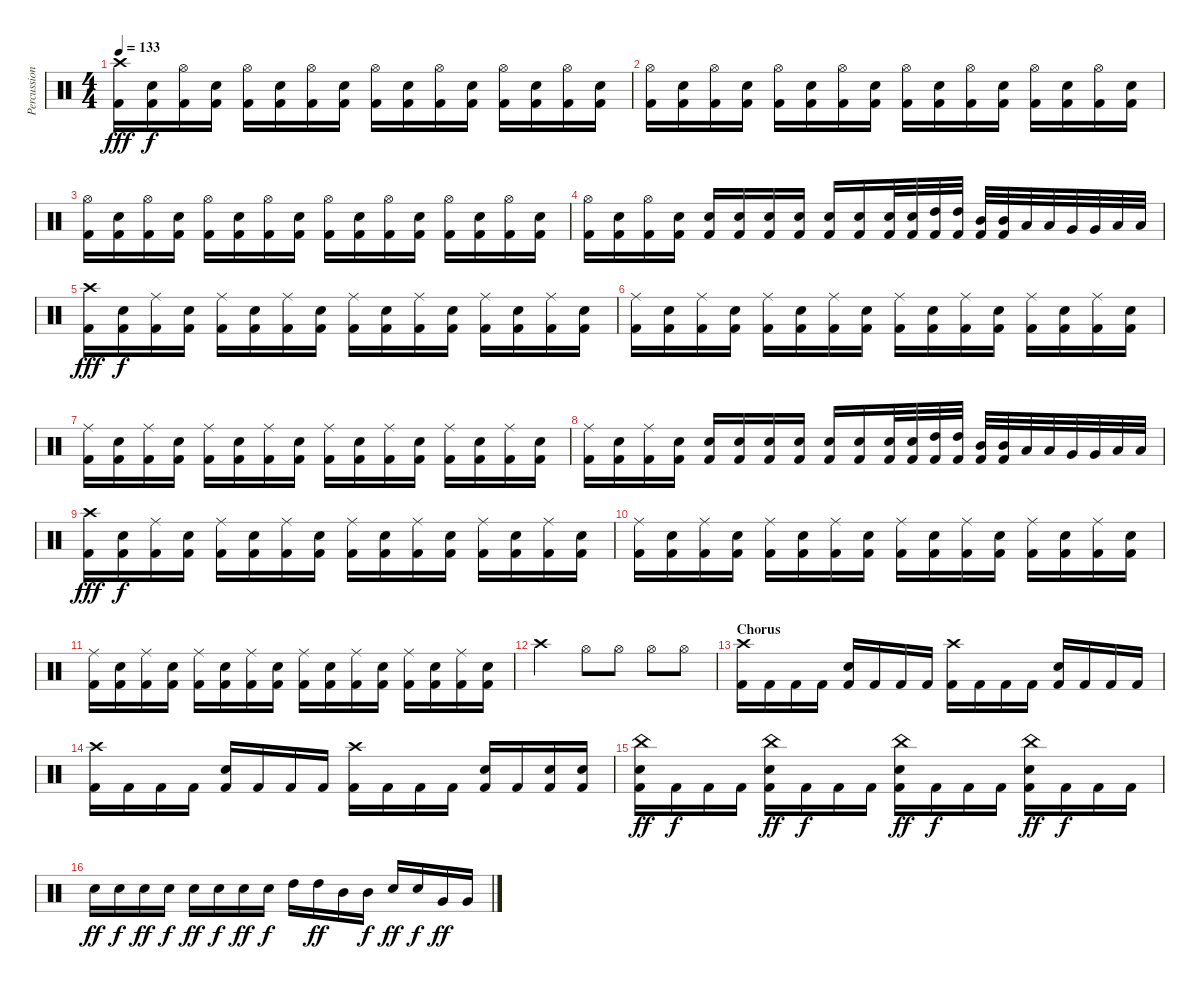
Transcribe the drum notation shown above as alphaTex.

\track ("Percussion" "Percussion") {instrument percussion}
\staff {score}
\articulation defaults
\ts (4 4)
\tempo 133
\clef neutral
\ks c
("Crash high (hit)" "Kick (hit) 2").16{dy fff volume 14} ("Electric Snare (hit)" "Kick (hit) 2").16{dy f} ("Hi-Hat (open)" "Kick (hit) 2").16 ("Electric Snare (hit)" "Kick (hit) 2").16 ("Hi-Hat (open)" "Kick (hit) 2").16 ("Electric Snare (hit)" "Kick (hit) 2").16 ("Hi-Hat (open)" "Kick (hit) 2").16 ("Electric Snare (hit)" "Kick (hit) 2").16 ("Hi-Hat (open)" "Kick (hit) 2").16 ("Electric Snare (hit)" "Kick (hit) 2").16 ("Hi-Hat (open)" "Kick (hit) 2").16 ("Electric Snare (hit)" "Kick (hit) 2").16 ("Hi-Hat (open)" "Kick (hit) 2").16 ("Electric Snare (hit)" "Kick (hit) 2").16 ("Hi-Hat (open)" "Kick (hit) 2").16 ("Electric Snare (hit)" "Kick (hit) 2").16 |
("Hi-Hat (open)" "Kick (hit) 2").16 ("Electric Snare (hit)" "Kick (hit) 2").16 ("Hi-Hat (open)" "Kick (hit) 2").16 ("Electric Snare (hit)" "Kick (hit) 2").16 ("Hi-Hat (open)" "Kick (hit) 2").16 ("Electric Snare (hit)" "Kick (hit) 2").16 ("Hi-Hat (open)" "Kick (hit) 2").16 ("Electric Snare (hit)" "Kick (hit) 2").16 ("Hi-Hat (open)" "Kick (hit) 2").16 ("Electric Snare (hit)" "Kick (hit) 2").16 ("Hi-Hat (open)" "Kick (hit) 2").16 ("Electric Snare (hit)" "Kick (hit) 2").16 ("Hi-Hat (open)" "Kick (hit) 2").16 ("Electric Snare (hit)" "Kick (hit) 2").16 ("Hi-Hat (open)" "Kick (hit) 2").16 ("Electric Snare (hit)" "Kick (hit) 2").16 |
("Hi-Hat (open)" "Kick (hit) 2").16 ("Electric Snare (hit)" "Kick (hit) 2").16 ("Hi-Hat (open)" "Kick (hit) 2").16 ("Electric Snare (hit)" "Kick (hit) 2").16 ("Hi-Hat (open)" "Kick (hit) 2").16 ("Electric Snare (hit)" "Kick (hit) 2").16 ("Hi-Hat (open)" "Kick (hit) 2").16 ("Electric Snare (hit)" "Kick (hit) 2").16 ("Hi-Hat (open)" "Kick (hit) 2").16 ("Electric Snare (hit)" "Kick (hit) 2").16 ("Hi-Hat (open)" "Kick (hit) 2").16 ("Electric Snare (hit)" "Kick (hit) 2").16 ("Hi-Hat (open)" "Kick (hit) 2").16 ("Electric Snare (hit)" "Kick (hit) 2").16 ("Hi-Hat (open)" "Kick (hit) 2").16 ("Electric Snare (hit)" "Kick (hit) 2").16 |
("Hi-Hat (open)" "Kick (hit) 2").16 ("Electric Snare (hit)" "Kick (hit) 2").16 ("Hi-Hat (open)" "Kick (hit) 2").16 ("Electric Snare (hit)" "Kick (hit) 2").16 ("Electric Snare (hit)" "Kick (hit) 2").16 ("Electric Snare (hit)" "Kick (hit) 2").16 ("Electric Snare (hit)" "Kick (hit) 2").16 ("Electric Snare (hit)" "Kick (hit) 2").16 ("Electric Snare (hit)" "Kick (hit) 2").16 ("Electric Snare (hit)" "Kick (hit) 2").16 ("Electric Snare (hit)" "Kick (hit) 2").32 ("Electric Snare (hit)" "Kick (hit) 2").32 ("High Tom (hit)" "Kick (hit) 2").32 ("High Tom (hit)" "Kick (hit) 2").32 ("Mid Tom (hit)" "Kick (hit) 2").32 ("Mid Tom (hit)" "Kick (hit) 2").32 "Low Tom (hit)".32 "Low Tom (hit)".32 "Very Low Tom (hit)".32 "Very Low Tom (hit)".32 "Low Floor Tom (hit)".32 "Low Floor Tom (hit)".32 |
("Crash high (hit)" "Kick (hit) 2").16{dy fff volume 14} ("Electric Snare (hit)" "Kick (hit) 2").16{dy f} ("Ride (middle)" "Kick (hit) 2").16 ("Electric Snare (hit)" "Kick (hit) 2").16 ("Ride (middle)" "Kick (hit) 2").16 ("Electric Snare (hit)" "Kick (hit) 2").16 ("Ride (middle)" "Kick (hit) 2").16 ("Electric Snare (hit)" "Kick (hit) 2").16 ("Ride (middle)" "Kick (hit) 2").16 ("Electric Snare (hit)" "Kick (hit) 2").16 ("Ride (middle)" "Kick (hit) 2").16 ("Electric Snare (hit)" "Kick (hit) 2").16 ("Ride (middle)" "Kick (hit) 2").16 ("Electric Snare (hit)" "Kick (hit) 2").16 ("Ride (middle)" "Kick (hit) 2").16 ("Electric Snare (hit)" "Kick (hit) 2").16 |
("Ride (middle)" "Kick (hit) 2").16 ("Electric Snare (hit)" "Kick (hit) 2").16 ("Ride (middle)" "Kick (hit) 2").16 ("Electric Snare (hit)" "Kick (hit) 2").16 ("Ride (middle)" "Kick (hit) 2").16 ("Electric Snare (hit)" "Kick (hit) 2").16 ("Ride (middle)" "Kick (hit) 2").16 ("Electric Snare (hit)" "Kick (hit) 2").16 ("Ride (middle)" "Kick (hit) 2").16 ("Electric Snare (hit)" "Kick (hit) 2").16 ("Ride (middle)" "Kick (hit) 2").16 ("Electric Snare (hit)" "Kick (hit) 2").16 ("Ride (middle)" "Kick (hit) 2").16 ("Electric Snare (hit)" "Kick (hit) 2").16 ("Ride (middle)" "Kick (hit) 2").16 ("Electric Snare (hit)" "Kick (hit) 2").16 |
("Ride (middle)" "Kick (hit) 2").16 ("Electric Snare (hit)" "Kick (hit) 2").16 ("Ride (middle)" "Kick (hit) 2").16 ("Electric Snare (hit)" "Kick (hit) 2").16 ("Ride (middle)" "Kick (hit) 2").16 ("Electric Snare (hit)" "Kick (hit) 2").16 ("Ride (middle)" "Kick (hit) 2").16 ("Electric Snare (hit)" "Kick (hit) 2").16 ("Ride (middle)" "Kick (hit) 2").16 ("Electric Snare (hit)" "Kick (hit) 2").16 ("Ride (middle)" "Kick (hit) 2").16 ("Electric Snare (hit)" "Kick (hit) 2").16 ("Ride (middle)" "Kick (hit) 2").16 ("Electric Snare (hit)" "Kick (hit) 2").16 ("Ride (middle)" "Kick (hit) 2").16 ("Electric Snare (hit)" "Kick (hit) 2").16 |
("Ride (middle)" "Kick (hit) 2").16 ("Electric Snare (hit)" "Kick (hit) 2").16 ("Ride (middle)" "Kick (hit) 2").16 ("Electric Snare (hit)" "Kick (hit) 2").16 ("Electric Snare (hit)" "Kick (hit) 2").16 ("Electric Snare (hit)" "Kick (hit) 2").16 ("Electric Snare (hit)" "Kick (hit) 2").16 ("Electric Snare (hit)" "Kick (hit) 2").16 ("Electric Snare (hit)" "Kick (hit) 2").16 ("Electric Snare (hit)" "Kick (hit) 2").16 ("Electric Snare (hit)" "Kick (hit) 2").32 ("Electric Snare (hit)" "Kick (hit) 2").32 ("High Tom (hit)" "Kick (hit) 2").32 ("High Tom (hit)" "Kick (hit) 2").32 ("Mid Tom (hit)" "Kick (hit) 2").32 ("Mid Tom (hit)" "Kick (hit) 2").32 "Low Tom (hit)".32 "Low Tom (hit)".32 "Very Low Tom (hit)".32 "Very Low Tom (hit)".32 "Low Floor Tom (hit)".32 "Low Floor Tom (hit)".32 |
("Crash high (hit)" "Kick (hit) 2").16{dy fff volume 14} ("Electric Snare (hit)" "Kick (hit) 2").16{dy f} ("Ride (middle)" "Kick (hit) 2").16 ("Electric Snare (hit)" "Kick (hit) 2").16 ("Ride (middle)" "Kick (hit) 2").16 ("Electric Snare (hit)" "Kick (hit) 2").16 ("Ride (middle)" "Kick (hit) 2").16 ("Electric Snare (hit)" "Kick (hit) 2").16 ("Ride (middle)" "Kick (hit) 2").16 ("Electric Snare (hit)" "Kick (hit) 2").16 ("Ride (middle)" "Kick (hit) 2").16 ("Electric Snare (hit)" "Kick (hit) 2").16 ("Ride (middle)" "Kick (hit) 2").16 ("Electric Snare (hit)" "Kick (hit) 2").16 ("Ride (middle)" "Kick (hit) 2").16 ("Electric Snare (hit)" "Kick (hit) 2").16 |
("Ride (middle)" "Kick (hit) 2").16 ("Electric Snare (hit)" "Kick (hit) 2").16 ("Ride (middle)" "Kick (hit) 2").16 ("Electric Snare (hit)" "Kick (hit) 2").16 ("Ride (middle)" "Kick (hit) 2").16 ("Electric Snare (hit)" "Kick (hit) 2").16 ("Ride (middle)" "Kick (hit) 2").16 ("Electric Snare (hit)" "Kick (hit) 2").16 ("Ride (middle)" "Kick (hit) 2").16 ("Electric Snare (hit)" "Kick (hit) 2").16 ("Ride (middle)" "Kick (hit) 2").16 ("Electric Snare (hit)" "Kick (hit) 2").16 ("Ride (middle)" "Kick (hit) 2").16 ("Electric Snare (hit)" "Kick (hit) 2").16 ("Ride (middle)" "Kick (hit) 2").16 ("Electric Snare (hit)" "Kick (hit) 2").16 |
("Ride (middle)" "Kick (hit) 2").16 ("Electric Snare (hit)" "Kick (hit) 2").16 ("Ride (middle)" "Kick (hit) 2").16 ("Electric Snare (hit)" "Kick (hit) 2").16 ("Ride (middle)" "Kick (hit) 2").16 ("Electric Snare (hit)" "Kick (hit) 2").16 ("Ride (middle)" "Kick (hit) 2").16 ("Electric Snare (hit)" "Kick (hit) 2").16 ("Ride (middle)" "Kick (hit) 2").16 ("Electric Snare (hit)" "Kick (hit) 2").16 ("Ride (middle)" "Kick (hit) 2").16 ("Electric Snare (hit)" "Kick (hit) 2").16 ("Ride (middle)" "Kick (hit) 2").16 ("Electric Snare (hit)" "Kick (hit) 2").16 ("Ride (middle)" "Kick (hit) 2").16 ("Electric Snare (hit)" "Kick (hit) 2").16 |
"Crash high (hit)".2 "Hi-Hat (open)".8 "Hi-Hat (open)".8 "Hi-Hat (open)".8 "Hi-Hat (open)".8 |
\section ("" "Chorus")
("Crash high (hit)" "Kick (hit) 2").16 "Kick (hit) 2".16 "Kick (hit) 2".16 "Kick (hit) 2".16 ("Electric Snare (hit)" "Kick (hit) 2").16 "Kick (hit) 2".16 "Kick (hit) 2".16 "Kick (hit) 2".16 ("Crash high (hit)" "Kick (hit) 2").16 "Kick (hit) 2".16 "Kick (hit) 2".16 "Kick (hit) 2".16 ("Electric Snare (hit)" "Kick (hit) 2").16 "Kick (hit) 2".16 "Kick (hit) 2".16 "Kick (hit) 2".16 |
("Crash high (hit)" "Kick (hit) 2").16 "Kick (hit) 2".16 "Kick (hit) 2".16 "Kick (hit) 2".16 ("Electric Snare (hit)" "Kick (hit) 2").16 "Kick (hit) 2".16 "Kick (hit) 2".16 "Kick (hit) 2".16 ("Crash high (hit)" "Kick (hit) 2").16 "Kick (hit) 2".16 "Kick (hit) 2".16 "Kick (hit) 2".16 ("Electric Snare (hit)" "Kick (hit) 2").16 "Kick (hit) 2".16 ("Electric Snare (hit)" "Kick (hit) 2").16 ("Electric Snare (hit)" "Kick (hit) 2").16 |
("China (hit)" "Electric Snare (hit)" "Kick (hit) 2").16{dy ff} "Kick (hit) 2".16{dy f} "Kick (hit) 2".16 "Kick (hit) 2".16 ("China (hit)" "Electric Snare (hit)" "Kick (hit) 2").16{dy ff} "Kick (hit) 2".16{dy f} "Kick (hit) 2".16 "Kick (hit) 2".16 ("China (hit)" "Electric Snare (hit)" "Kick (hit) 2").16{dy ff} "Kick (hit) 2".16{dy f} "Kick (hit) 2".16 "Kick (hit) 2".16 ("China (hit)" "Electric Snare (hit)" "Kick (hit) 2").16{dy ff} "Kick (hit) 2".16{dy f} "Kick (hit) 2".16 "Kick (hit) 2".16 |
"Electric Snare (hit)".16{dy ff volume 13} "Electric Snare (hit)".16{dy f} "Electric Snare (hit)".16{dy ff} "Electric Snare (hit)".16{dy f} "Electric Snare (hit)".16{dy ff} "Electric Snare (hit)".16{dy f} "Electric Snare (hit)".16{dy ff} "Electric Snare (hit)".16{dy f} "High Tom (hit)".16 "High Tom (hit)".16{dy ff} "Mid Tom (hit)".16 "Mid Tom (hit)".16{dy f} "Electric Snare (hit)".16{dy ff} "Electric Snare (hit)".16{dy f} "Very Low Tom (hit)".16{dy ff} "Very Low Tom (hit)".16
